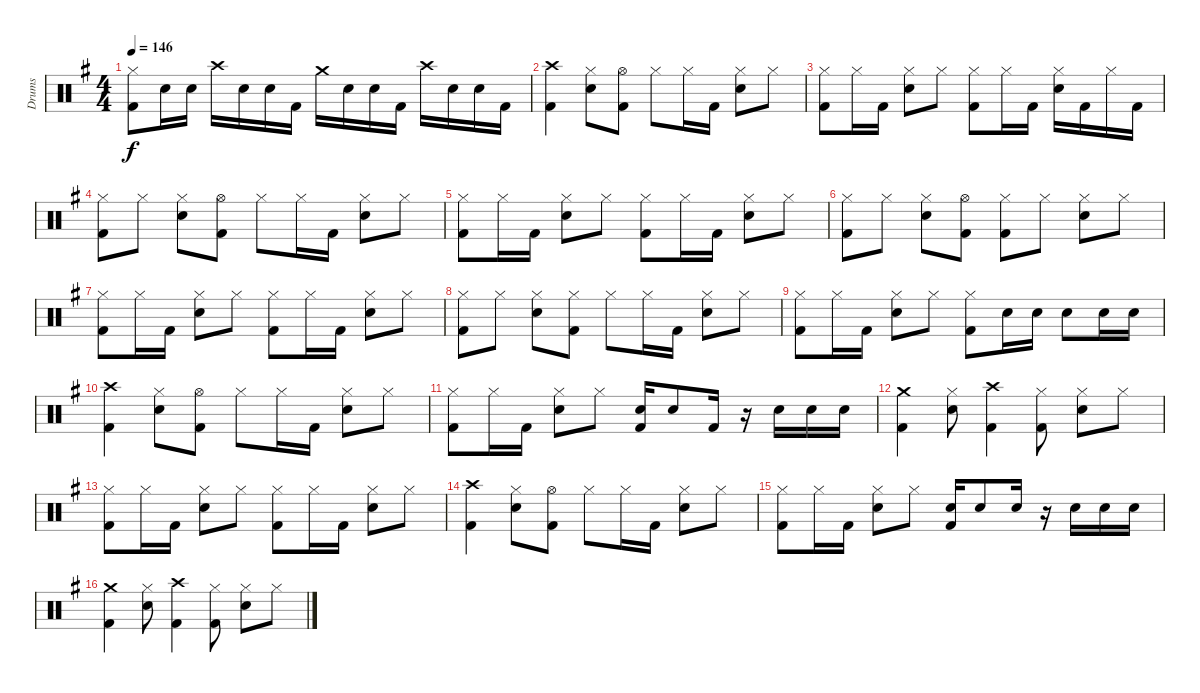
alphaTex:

\track ("Drums" "Drums") {instrument percussion}
\staff {score}
\articulation defaults
\ts (4 4)
\tempo 146
\clef neutral
\ks g
("Kick (hit) 2" "Hi-Hat (closed)").8{dy f} "Snare (hit) 2".16 "Snare (hit) 2".16 "Crash high (hit)".16 "Snare (hit) 2".16 "Snare (hit) 2".16 "Kick (hit) 2".16 "Crash medium (hit)".16 "Snare (hit) 2".16 "Snare (hit) 2".16 "Kick (hit) 2".16 "Crash high (hit)".16 "Snare (hit) 2".16 "Snare (hit) 2".16 "Kick (hit) 2".16 |
("Kick (hit) 2" "Crash high (hit)").4 ("Snare (hit) 2" "Hi-Hat (closed)").8 ("Kick (hit) 2" "Hi-Hat (open)").8 "Hi-Hat (closed)".8 "Hi-Hat (closed)".16 "Kick (hit) 2".16 ("Snare (hit) 2" "Hi-Hat (closed)").8 "Hi-Hat (closed)".8 |
("Kick (hit) 2" "Hi-Hat (closed)").8 "Hi-Hat (closed)".16 "Kick (hit) 2".16 ("Snare (hit) 2" "Hi-Hat (closed)").8 "Hi-Hat (closed)".8 ("Kick (hit) 2" "Hi-Hat (closed)").8 "Hi-Hat (closed)".16 "Kick (hit) 2".16 ("Snare (hit) 2" "Hi-Hat (closed)").16 "Kick (hit) 2".16 "Hi-Hat (closed)".16 "Kick (hit) 2".16 |
("Kick (hit) 2" "Hi-Hat (closed)").8 "Hi-Hat (closed)".8 ("Snare (hit) 2" "Hi-Hat (closed)").8 ("Kick (hit) 2" "Hi-Hat (open)").8 "Hi-Hat (closed)".8 "Hi-Hat (closed)".16 "Kick (hit) 2".16 ("Snare (hit) 2" "Hi-Hat (closed)").8 "Hi-Hat (closed)".8 |
("Kick (hit) 2" "Hi-Hat (closed)").8 "Hi-Hat (closed)".16 "Kick (hit) 2".16 ("Snare (hit) 2" "Hi-Hat (closed)").8 "Hi-Hat (closed)".8 ("Kick (hit) 2" "Hi-Hat (closed)").8 "Hi-Hat (closed)".16 "Kick (hit) 2".16 ("Snare (hit) 2" "Hi-Hat (closed)").8 "Hi-Hat (closed)".8 |
("Kick (hit) 2" "Hi-Hat (closed)").8 "Hi-Hat (closed)".8 ("Snare (hit) 2" "Hi-Hat (closed)").8 ("Kick (hit) 2" "Hi-Hat (open)").8 ("Kick (hit) 2" "Hi-Hat (closed)").8 "Hi-Hat (closed)".8 ("Snare (hit) 2" "Hi-Hat (closed)").8 "Hi-Hat (closed)".8 |
("Kick (hit) 2" "Hi-Hat (closed)").8 "Hi-Hat (closed)".16 "Kick (hit) 2".16 ("Snare (hit) 2" "Hi-Hat (closed)").8 "Hi-Hat (closed)".8 ("Kick (hit) 2" "Hi-Hat (closed)").8 "Hi-Hat (closed)".16 "Kick (hit) 2".16 ("Snare (hit) 2" "Hi-Hat (closed)").8 "Hi-Hat (closed)".8 |
("Kick (hit) 2" "Hi-Hat (closed)").8 "Hi-Hat (closed)".8 ("Snare (hit) 2" "Hi-Hat (closed)").8 ("Kick (hit) 2" "Hi-Hat (closed)").8 "Hi-Hat (closed)".8 "Hi-Hat (closed)".16 "Kick (hit) 2".16 ("Snare (hit) 2" "Hi-Hat (closed)").8 "Hi-Hat (closed)".8 |
("Kick (hit) 2" "Hi-Hat (closed)").8 "Hi-Hat (closed)".16 "Kick (hit) 2".16 ("Snare (hit) 2" "Hi-Hat (closed)").8 "Hi-Hat (closed)".8 ("Kick (hit) 2" "Hi-Hat (closed)").8 "Snare (hit) 2".16 "Snare (hit) 2".16 "Snare (hit) 2".8 "Snare (hit) 2".16 "Snare (hit) 2".16 |
("Kick (hit) 2" "Crash high (hit)").4 ("Snare (hit) 2" "Hi-Hat (closed)").8 ("Kick (hit) 2" "Hi-Hat (open)").8 "Hi-Hat (closed)".8 "Hi-Hat (closed)".16 "Kick (hit) 2".16 ("Snare (hit) 2" "Hi-Hat (closed)").8 "Hi-Hat (closed)".8 |
("Kick (hit) 2" "Hi-Hat (closed)").8 "Hi-Hat (closed)".16 "Kick (hit) 2".16 ("Snare (hit) 2" "Hi-Hat (closed)").8 "Hi-Hat (closed)".8 ("Kick (hit) 2" "Snare (hit) 2").16 "Snare (hit) 2".8 "Kick (hit) 2".16 r.16 "Snare (hit) 2".16 "Snare (hit) 2".16 "Snare (hit) 2".16 |
("Kick (hit) 2" "Crash medium (hit)").4 ("Snare (hit) 2" "Hi-Hat (closed)").8 ("Kick (hit) 2" "Crash high (hit)").4 ("Kick (hit) 2" "Hi-Hat (closed)").8 ("Snare (hit) 2" "Hi-Hat (closed)").8 "Hi-Hat (closed)".8 |
("Kick (hit) 2" "Hi-Hat (closed)").8 "Hi-Hat (closed)".16 "Kick (hit) 2".16 ("Snare (hit) 2" "Hi-Hat (closed)").8 "Hi-Hat (closed)".8 ("Kick (hit) 2" "Hi-Hat (closed)").8 "Hi-Hat (closed)".16 "Kick (hit) 2".16 ("Snare (hit) 2" "Hi-Hat (closed)").8 "Hi-Hat (closed)".8 |
("Kick (hit) 2" "Crash high (hit)").4 ("Snare (hit) 2" "Hi-Hat (closed)").8 ("Kick (hit) 2" "Hi-Hat (open)").8 "Hi-Hat (closed)".8 "Hi-Hat (closed)".16 "Kick (hit) 2".16 ("Snare (hit) 2" "Hi-Hat (closed)").8 "Hi-Hat (closed)".8 |
("Kick (hit) 2" "Hi-Hat (closed)").8 "Hi-Hat (closed)".16 "Kick (hit) 2".16 ("Snare (hit) 2" "Hi-Hat (closed)").8 "Hi-Hat (closed)".8 ("Kick (hit) 2" "Snare (hit) 2").16 "Snare (hit) 2".8 "Snare (hit) 2".16 r.16 "Snare (hit) 2".16 "Snare (hit) 2".16 "Snare (hit) 2".16 |
("Kick (hit) 2" "Crash medium (hit)").4 ("Snare (hit) 2" "Hi-Hat (closed)").8 ("Kick (hit) 2" "Crash high (hit)").4 ("Kick (hit) 2" "Hi-Hat (closed)").8 ("Snare (hit) 2" "Hi-Hat (closed)").8 "Hi-Hat (closed)".8
